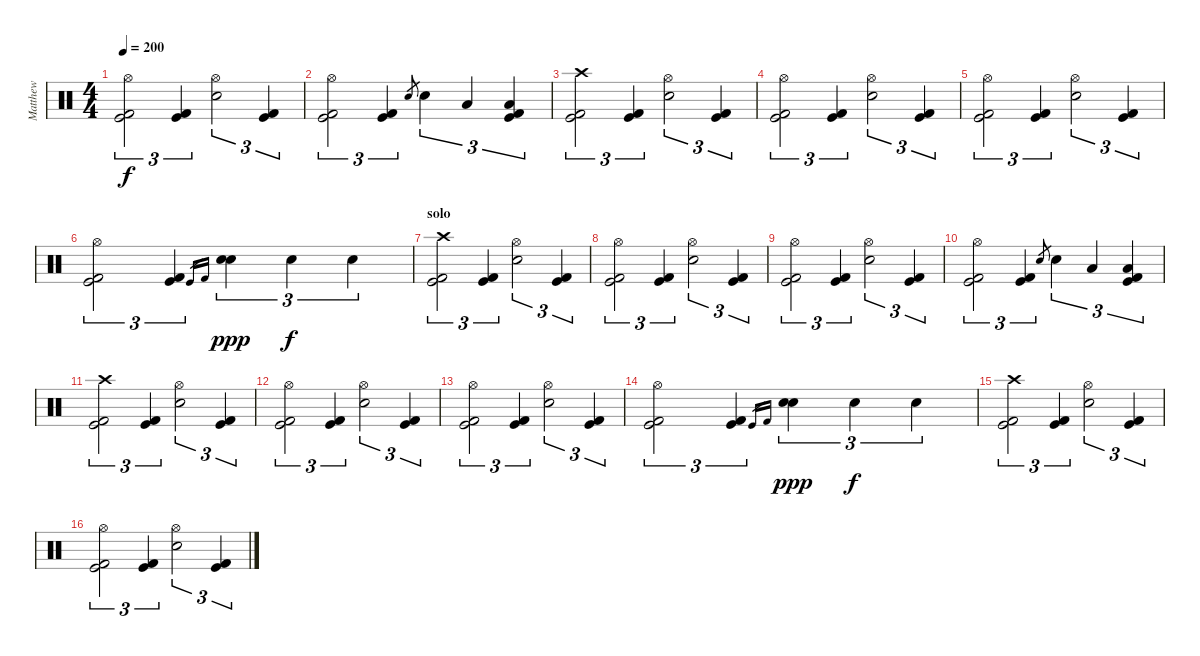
\track ("Matthew" "Matthew") {instrument percussion}
\staff {score}
\articulation defaults
\ts (4 4)
\tempo 200
\clef neutral
\ks c
("Kick (hit) 2" "Kick (hit)" "Hi-Hat (open)").2{tu (3 2) dy f} ("Kick (hit) 2" "Kick (hit)").4{tu (3 2)} ("Snare (hit) 2" "Hi-Hat (open)").2{tu (3 2)} ("Kick (hit)" "Kick (hit) 2").4{tu (3 2)} |
("Kick (hit) 2" "Kick (hit)" "Hi-Hat (open)").2{tu (3 2)} ("Kick (hit) 2" "Kick (hit)").4{tu (3 2)} "Snare (hit) 2".8{gr} "Snare (hit) 2".4{tu (3 2)} "Low Tom (hit)".4{tu (3 2)} ("Low Floor Tom (hit)" "Kick (hit) 2" "Kick (hit)").4{tu (3 2)} |
("Kick (hit) 2" "Kick (hit)" "Crash high (hit)").2{tu (3 2)} ("Kick (hit) 2" "Kick (hit)").4{tu (3 2)} ("Snare (hit) 2" "Hi-Hat (open)").2{tu (3 2)} ("Kick (hit)" "Kick (hit) 2").4{tu (3 2)} |
("Kick (hit) 2" "Kick (hit)" "Hi-Hat (open)").2{tu (3 2)} ("Kick (hit) 2" "Kick (hit)").4{tu (3 2)} ("Snare (hit) 2" "Hi-Hat (open)").2{tu (3 2)} ("Kick (hit)" "Kick (hit) 2").4{tu (3 2)} |
("Kick (hit) 2" "Kick (hit)" "Hi-Hat (open)").2{tu (3 2)} ("Kick (hit) 2" "Kick (hit)").4{tu (3 2)} ("Snare (hit) 2" "Hi-Hat (open)").2{tu (3 2)} ("Kick (hit)" "Kick (hit) 2").4{tu (3 2)} |
("Kick (hit) 2" "Kick (hit)" "Hi-Hat (open)").2{tu (3 2)} ("Kick (hit) 2" "Kick (hit)").4{tu (3 2)} "Kick (hit)".16{gr} "Kick (hit) 2".16{gr} ("Snare (hit) 2" "Snare (hit) 2").4{tu (3 2) dy ppp} "Snare (hit) 2".4{tu (3 2) dy f} "Snare (hit) 2".4{tu (3 2)} |
\section ("" "solo")
("Kick (hit) 2" "Kick (hit)" "Crash high (hit)").2{tu (3 2)} ("Kick (hit) 2" "Kick (hit)").4{tu (3 2)} ("Snare (hit) 2" "Hi-Hat (open)").2{tu (3 2)} ("Kick (hit)" "Kick (hit) 2").4{tu (3 2)} |
("Kick (hit) 2" "Kick (hit)" "Hi-Hat (open)").2{tu (3 2)} ("Kick (hit) 2" "Kick (hit)").4{tu (3 2)} ("Snare (hit) 2" "Hi-Hat (open)").2{tu (3 2)} ("Kick (hit)" "Kick (hit) 2").4{tu (3 2)} |
("Kick (hit) 2" "Kick (hit)" "Hi-Hat (open)").2{tu (3 2)} ("Kick (hit) 2" "Kick (hit)").4{tu (3 2)} ("Snare (hit) 2" "Hi-Hat (open)").2{tu (3 2)} ("Kick (hit)" "Kick (hit) 2").4{tu (3 2)} |
("Kick (hit) 2" "Kick (hit)" "Hi-Hat (open)").2{tu (3 2)} ("Kick (hit) 2" "Kick (hit)").4{tu (3 2)} "Snare (hit) 2".8{gr} "Snare (hit) 2".4{tu (3 2)} "Low Tom (hit)".4{tu (3 2)} ("Low Floor Tom (hit)" "Kick (hit) 2" "Kick (hit)").4{tu (3 2)} |
("Kick (hit) 2" "Kick (hit)" "Crash high (hit)").2{tu (3 2)} ("Kick (hit) 2" "Kick (hit)").4{tu (3 2)} ("Snare (hit) 2" "Hi-Hat (open)").2{tu (3 2)} ("Kick (hit)" "Kick (hit) 2").4{tu (3 2)} |
("Kick (hit) 2" "Kick (hit)" "Hi-Hat (open)").2{tu (3 2)} ("Kick (hit) 2" "Kick (hit)").4{tu (3 2)} ("Snare (hit) 2" "Hi-Hat (open)").2{tu (3 2)} ("Kick (hit)" "Kick (hit) 2").4{tu (3 2)} |
("Kick (hit) 2" "Kick (hit)" "Hi-Hat (open)").2{tu (3 2)} ("Kick (hit) 2" "Kick (hit)").4{tu (3 2)} ("Snare (hit) 2" "Hi-Hat (open)").2{tu (3 2)} ("Kick (hit)" "Kick (hit) 2").4{tu (3 2)} |
("Kick (hit) 2" "Kick (hit)" "Hi-Hat (open)").2{tu (3 2)} ("Kick (hit) 2" "Kick (hit)").4{tu (3 2)} "Kick (hit)".16{gr} "Kick (hit) 2".16{gr} ("Snare (hit) 2" "Snare (hit) 2").4{tu (3 2) dy ppp} "Snare (hit) 2".4{tu (3 2) dy f} "Snare (hit) 2".4{tu (3 2)} |
("Kick (hit) 2" "Kick (hit)" "Crash high (hit)").2{tu (3 2)} ("Kick (hit) 2" "Kick (hit)").4{tu (3 2)} ("Snare (hit) 2" "Hi-Hat (open)").2{tu (3 2)} ("Kick (hit)" "Kick (hit) 2").4{tu (3 2)} |
("Kick (hit) 2" "Kick (hit)" "Hi-Hat (open)").2{tu (3 2)} ("Kick (hit) 2" "Kick (hit)").4{tu (3 2)} ("Snare (hit) 2" "Hi-Hat (open)").2{tu (3 2)} ("Kick (hit)" "Kick (hit) 2").4{tu (3 2)}
